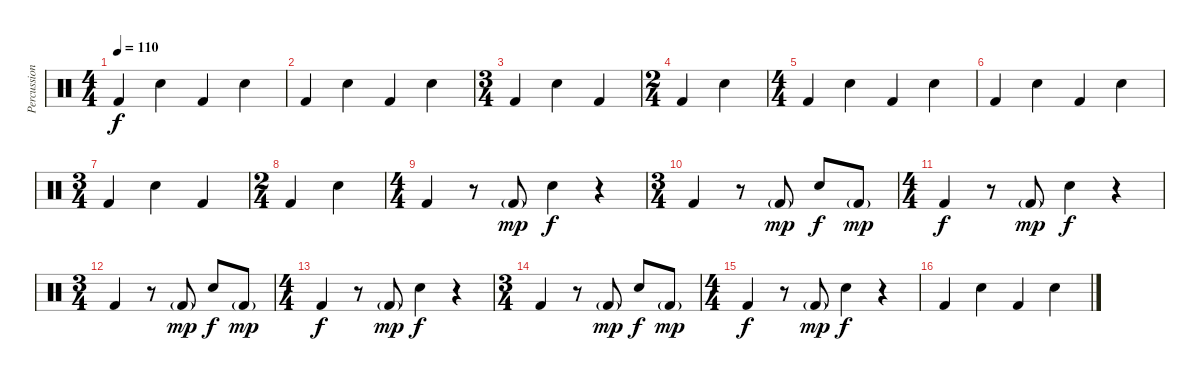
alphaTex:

\track ("Percussion" "Percussion") {instrument percussion}
\staff {score}
\articulation defaults
\ts (4 4)
\tempo 110
\clef neutral
\ks c "Kick (hit) 2".4{dy f} "Snare (hit) 2".4 "Kick (hit) 2".4 "Snare (hit) 2".4
|
"Kick (hit) 2".4 "Snare (hit) 2".4 "Kick (hit) 2".4 "Snare (hit) 2".4 |
\ts (3 4)
"Kick (hit) 2".4 "Snare (hit) 2".4 "Kick (hit) 2".4 |
\ts (2 4)
"Kick (hit) 2".4 "Snare (hit) 2".4 |
\ts (4 4)
"Kick (hit) 2".4 "Snare (hit) 2".4 "Kick (hit) 2".4 "Snare (hit) 2".4 |
"Kick (hit) 2".4 "Snare (hit) 2".4 "Kick (hit) 2".4 "Snare (hit) 2".4 |
\ts (3 4)
"Kick (hit) 2".4 "Snare (hit) 2".4 "Kick (hit) 2".4 |
\ts (2 4)
"Kick (hit) 2".4 "Snare (hit) 2".4 |
\ts (4 4)
"Kick (hit) 2".4 r.8 "Kick (hit) 2"{g}.8{dy mp} "Snare (hit) 2".4{dy f} r.4 |
\ts (3 4)
"Kick (hit) 2".4 r.8 "Kick (hit) 2"{g}.8{dy mp} "Snare (hit) 2".8{dy f} "Kick (hit) 2"{g}.8{dy mp} |
\ts (4 4)
"Kick (hit) 2".4{dy f} r.8 "Kick (hit) 2"{g}.8{dy mp} "Snare (hit) 2".4{dy f} r.4 |
\ts (3 4)
"Kick (hit) 2".4 r.8 "Kick (hit) 2"{g}.8{dy mp} "Snare (hit) 2".8{dy f} "Kick (hit) 2"{g}.8{dy mp} |
\ts (4 4)
"Kick (hit) 2".4{dy f} r.8 "Kick (hit) 2"{g}.8{dy mp} "Snare (hit) 2".4{dy f} r.4 |
\ts (3 4)
"Kick (hit) 2".4 r.8 "Kick (hit) 2"{g}.8{dy mp} "Snare (hit) 2".8{dy f} "Kick (hit) 2"{g}.8{dy mp} |
\ts (4 4)
"Kick (hit) 2".4{dy f} r.8 "Kick (hit) 2"{g}.8{dy mp} "Snare (hit) 2".4{dy f} r.4 |
"Kick (hit) 2".4 "Snare (hit) 2".4 "Kick (hit) 2".4 "Snare (hit) 2".4
